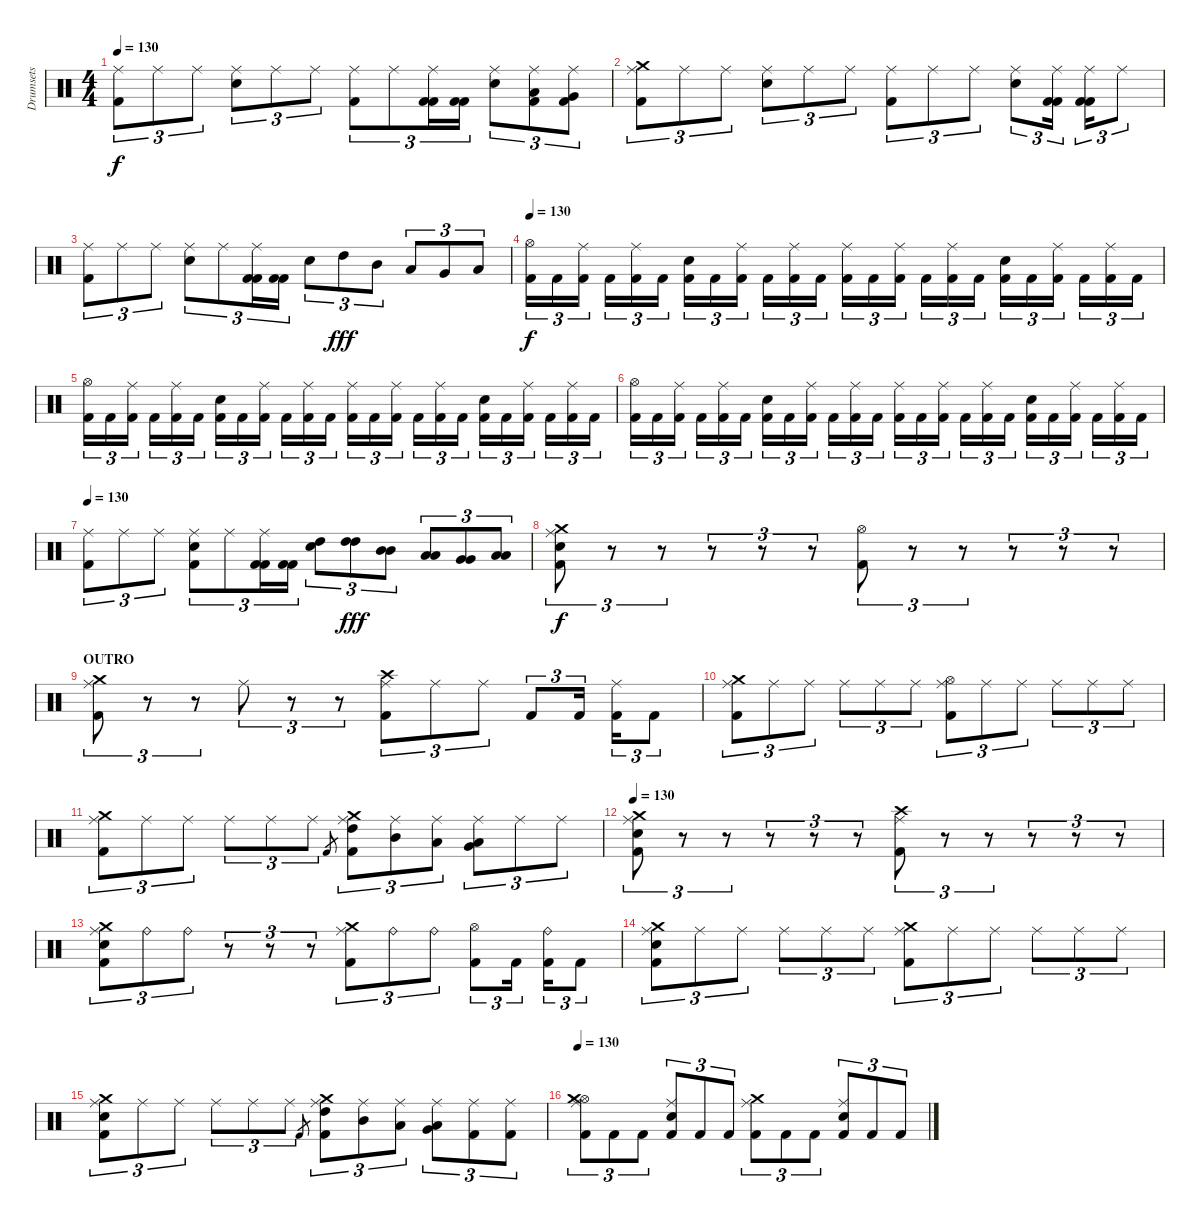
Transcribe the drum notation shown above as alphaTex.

\track ("Drumsets" "Drumsets") {instrument percussion}
\staff {score}
\articulation defaults
\ts (4 4)
\tempo 130
\clef neutral
\ks c
("Kick (hit) 2" "Ride (middle)").8{tu (3 2) dy f} "Ride (middle)".8{tu (3 2)} "Ride (middle)".8{tu (3 2)} ("Snare (hit) 2" "Ride (middle)").8{tu (3 2)} "Ride (middle)".8{tu (3 2)} "Ride (middle)".8{tu (3 2)} ("Kick (hit) 2" "Ride (middle)").8{tu (3 2)} "Ride (middle)".8{tu (3 2)} ("Kick (hit) 2" "Ride (middle)" "Kick (hit) 2").16{tu (3 2)} ("Kick (hit) 2" "Kick (hit) 2").16{tu (3 2)} ("Snare (hit) 2" "Ride (middle)").8{tu (3 2)} ("Kick (hit) 2" "Low Tom (hit)" "Ride (middle)").8{tu (3 2)} ("Kick (hit) 2" "Very Low Tom (hit)" "Ride (middle)").8{tu (3 2)} |
("Kick (hit) 2" "Ride (middle)" "Crash medium (hit)").8{tu (3 2)} "Ride (middle)".8{tu (3 2)} "Ride (middle)".8{tu (3 2)} ("Snare (hit) 2" "Ride (middle)").8{tu (3 2)} "Ride (middle)".8{tu (3 2)} "Ride (middle)".8{tu (3 2)} ("Kick (hit) 2" "Ride (middle)").8{tu (3 2)} "Ride (middle)".8{tu (3 2)} "Ride (middle)".8{tu (3 2)} ("Snare (hit) 2" "Ride (middle)").8{tu (3 2)} ("Kick (hit) 2" "Ride (middle)" "Kick (hit) 2").16{tu (3 2)} ("Kick (hit) 2" "Ride (middle)" "Kick (hit) 2").16{tu (3 2)} "Ride (middle)".8{tu (3 2)} |
("Kick (hit) 2" "Ride (middle)").8{tu (3 2)} "Ride (middle)".8{tu (3 2)} "Ride (middle)".8{tu (3 2)} ("Snare (hit) 2" "Ride (middle)").8{tu (3 2)} "Ride (middle)".8{tu (3 2)} ("Kick (hit) 2" "Ride (middle)" "Kick (hit) 2").16{tu (3 2)} ("Kick (hit) 2" "Kick (hit) 2").16{tu (3 2)} "Electric Snare (hit)".8{tu (3 2)} "High Tom (hit)".8{tu (3 2) dy fff} "Mid Tom (hit)".8{tu (3 2)} "Low Tom (hit)".8{tu (3 2)} "Very Low Tom (hit)".8{tu (3 2)} "Low Floor Tom (hit)".8{tu (3 2)} |
\tempo 130
("Hi-Hat (open)" "Kick (hit) 2").16{tu (3 2) dy f} "Kick (hit) 2".16{tu (3 2)} ("Ride (middle)" "Kick (hit) 2").16{tu (3 2)} "Kick (hit) 2".16{tu (3 2)} ("Ride (middle)" "Kick (hit) 2").16{tu (3 2)} "Kick (hit) 2".16{tu (3 2)} ("Snare (hit) 2" "Kick (hit) 2").16{tu (3 2)} "Kick (hit) 2".16{tu (3 2)} ("Ride (middle)" "Kick (hit) 2").16{tu (3 2)} "Kick (hit) 2".16{tu (3 2)} ("Ride (middle)" "Kick (hit) 2").16{tu (3 2)} "Kick (hit) 2".16{tu (3 2)} ("Ride (middle)" "Kick (hit) 2").16{tu (3 2)} "Kick (hit) 2".16{tu (3 2)} ("Ride (middle)" "Kick (hit) 2").16{tu (3 2)} "Kick (hit) 2".16{tu (3 2)} ("Ride (middle)" "Kick (hit) 2").16{tu (3 2)} "Kick (hit) 2".16{tu (3 2)} ("Snare (hit) 2" "Kick (hit) 2").16{tu (3 2)} "Kick (hit) 2".16{tu (3 2)} ("Ride (middle)" "Kick (hit) 2").16{tu (3 2)} "Kick (hit) 2".16{tu (3 2)} ("Ride (middle)" "Kick (hit) 2").16{tu (3 2)} "Kick (hit) 2".16{tu (3 2)} |
("Hi-Hat (open)" "Kick (hit) 2").16{tu (3 2)} "Kick (hit) 2".16{tu (3 2)} ("Ride (middle)" "Kick (hit) 2").16{tu (3 2)} "Kick (hit) 2".16{tu (3 2)} ("Ride (middle)" "Kick (hit) 2").16{tu (3 2)} "Kick (hit) 2".16{tu (3 2)} ("Snare (hit) 2" "Kick (hit) 2").16{tu (3 2)} "Kick (hit) 2".16{tu (3 2)} ("Ride (middle)" "Kick (hit) 2").16{tu (3 2)} "Kick (hit) 2".16{tu (3 2)} ("Ride (middle)" "Kick (hit) 2").16{tu (3 2)} "Kick (hit) 2".16{tu (3 2)} ("Ride (middle)" "Kick (hit) 2").16{tu (3 2)} "Kick (hit) 2".16{tu (3 2)} ("Ride (middle)" "Kick (hit) 2").16{tu (3 2)} "Kick (hit) 2".16{tu (3 2)} ("Ride (middle)" "Kick (hit) 2").16{tu (3 2)} "Kick (hit) 2".16{tu (3 2)} ("Snare (hit) 2" "Kick (hit) 2").16{tu (3 2)} "Kick (hit) 2".16{tu (3 2)} ("Ride (middle)" "Kick (hit) 2").16{tu (3 2)} "Kick (hit) 2".16{tu (3 2)} ("Ride (middle)" "Kick (hit) 2").16{tu (3 2)} "Kick (hit) 2".16{tu (3 2)} |
("Hi-Hat (open)" "Kick (hit) 2").16{tu (3 2)} "Kick (hit) 2".16{tu (3 2)} ("Ride (middle)" "Kick (hit) 2").16{tu (3 2)} "Kick (hit) 2".16{tu (3 2)} ("Ride (middle)" "Kick (hit) 2").16{tu (3 2)} "Kick (hit) 2".16{tu (3 2)} ("Snare (hit) 2" "Kick (hit) 2").16{tu (3 2)} "Kick (hit) 2".16{tu (3 2)} ("Ride (middle)" "Kick (hit) 2").16{tu (3 2)} "Kick (hit) 2".16{tu (3 2)} ("Ride (middle)" "Kick (hit) 2").16{tu (3 2)} "Kick (hit) 2".16{tu (3 2)} ("Ride (middle)" "Kick (hit) 2").16{tu (3 2)} "Kick (hit) 2".16{tu (3 2)} ("Ride (middle)" "Kick (hit) 2").16{tu (3 2)} "Kick (hit) 2".16{tu (3 2)} ("Ride (middle)" "Kick (hit) 2").16{tu (3 2)} "Kick (hit) 2".16{tu (3 2)} ("Snare (hit) 2" "Kick (hit) 2").16{tu (3 2)} "Kick (hit) 2".16{tu (3 2)} ("Ride (middle)" "Kick (hit) 2").16{tu (3 2)} "Kick (hit) 2".16{tu (3 2)} ("Ride (middle)" "Kick (hit) 2").16{tu (3 2)} "Kick (hit) 2".16{tu (3 2)} |
\tempo 130
("Kick (hit) 2" "Ride (middle)").8{tu (3 2)} "Ride (middle)".8{tu (3 2)} "Ride (middle)".8{tu (3 2)} ("Kick (hit) 2" "Snare (hit) 2" "Ride (middle)").8{tu (3 2)} "Ride (middle)".8{tu (3 2)} ("Kick (hit) 2" "Ride (middle)" "Kick (hit) 2").16{tu (3 2)} ("Kick (hit) 2" "Kick (hit) 2").16{tu (3 2)} ("Electric Snare (hit)" "High Tom (hit)").8{tu (3 2)} ("High Tom (hit)" "High Tom (hit)").8{tu (3 2) dy fff} ("Mid Tom (hit)" "Mid Tom (hit)").8{tu (3 2)} ("Low Tom (hit)" "Low Tom (hit)").8{tu (3 2)} ("Very Low Tom (hit)" "Very Low Tom (hit)").8{tu (3 2)} ("Low Floor Tom (hit)" "Low Floor Tom (hit)").8{tu (3 2)} |
("Kick (hit) 2" "Snare (hit) 2" "Ride (middle)" "Crash medium (hit)").8{tu (3 2) dy f} r.8{tu (3 2)} r.8{tu (3 2)} r.8{tu (3 2)} r.8{tu (3 2)} r.8{tu (3 2)} ("Kick (hit) 2" "Hi-Hat (open)").8{tu (3 2)} r.8{tu (3 2)} r.8{tu (3 2)} r.8{tu (3 2)} r.8{tu (3 2)} r.8{tu (3 2)} |
\section ("" "OUTRO")
("Kick (hit) 2" "Ride (middle)" "Crash medium (hit)").8{tu (3 2)} r.8{tu (3 2)} r.8{tu (3 2)} "Ride (middle)".8{tu (3 2)} r.8{tu (3 2)} r.8{tu (3 2)} ("Kick (hit) 2" "Ride (middle)" "Crash high (hit)").8{tu (3 2)} "Ride (middle)".8{tu (3 2)} "Ride (middle)".8{tu (3 2)} "Kick (hit) 2".8{tu (3 2)} "Kick (hit) 2".16{tu (3 2)} ("Ride (middle)" "Kick (hit) 2").16{tu (3 2)} "Kick (hit) 2".8{tu (3 2)} |
("Kick (hit) 2" "Ride (middle)" "Crash medium (hit)").8{tu (3 2)} "Ride (middle)".8{tu (3 2)} "Ride (middle)".8{tu (3 2)} "Ride (middle)".8{tu (3 2)} "Ride (middle)".8{tu (3 2)} "Ride (middle)".8{tu (3 2)} ("Kick (hit) 2" "Ride (middle)" "Hi-Hat (open)").8{tu (3 2)} "Ride (middle)".8{tu (3 2)} "Ride (middle)".8{tu (3 2)} "Ride (middle)".8{tu (3 2)} "Ride (middle)".8{tu (3 2)} "Ride (middle)".8{tu (3 2)} |
("Kick (hit) 2" "Ride (middle)" "Crash medium (hit)").8{tu (3 2)} "Ride (middle)".8{tu (3 2)} "Ride (middle)".8{tu (3 2)} "Ride (middle)".8{tu (3 2)} "Ride (middle)".8{tu (3 2)} "Ride (middle)".8{tu (3 2)} "Kick (hit) 2".8{gr} ("Kick (hit) 2" "High Tom (hit)" "Ride (middle)" "Crash medium (hit)").8{tu (3 2)} ("Ride (middle)" "Mid Tom (hit)").8{tu (3 2)} ("Ride (middle)" "Low Tom (hit)").8{tu (3 2)} ("Ride (middle)" "Low Floor Tom (hit)" "Very Low Tom (hit)").8{tu (3 2)} "Ride (middle)".8{tu (3 2)} "Ride (middle)".8{tu (3 2)} |
\tempo 130
("Kick (hit) 2" "Snare (hit) 2" "Ride (middle)" "Crash medium (hit)").8{tu (3 2)} r.8{tu (3 2)} r.8{tu (3 2)} r.8{tu (3 2)} r.8{tu (3 2)} r.8{tu (3 2)} ("Kick (hit) 2" "Ride (middle)" "Crash high (hit)").8{tu (3 2)} r.8{tu (3 2)} r.8{tu (3 2)} r.8{tu (3 2)} r.8{tu (3 2)} r.8{tu (3 2)} |
("Kick (hit) 2" "Snare (hit) 2" "Ride (middle)" "Crash medium (hit)").8{tu (3 2)} "Ride (bell)".8{tu (3 2)} "Ride (bell)".8{tu (3 2)} r.8{tu (3 2)} r.8{tu (3 2)} r.8{tu (3 2)} ("Kick (hit) 2" "Ride (middle)" "Crash medium (hit)").8{tu (3 2)} "Ride (bell)".8{tu (3 2)} "Ride (bell)".8{tu (3 2)} ("Hi-Hat (open)" "Kick (hit) 2").8{tu (3 2)} "Kick (hit) 2".16{tu (3 2)} ("Ride (bell)" "Kick (hit) 2").16{tu (3 2)} "Kick (hit) 2".8{tu (3 2)} |
("Kick (hit) 2" "Snare (hit) 2" "Ride (middle)" "Crash medium (hit)").8{tu (3 2)} "Ride (middle)".8{tu (3 2)} "Ride (middle)".8{tu (3 2)} "Ride (middle)".8{tu (3 2)} "Ride (middle)".8{tu (3 2)} "Ride (middle)".8{tu (3 2)} ("Kick (hit) 2" "Ride (middle)" "Crash medium (hit)").8{tu (3 2)} "Ride (middle)".8{tu (3 2)} "Ride (middle)".8{tu (3 2)} "Ride (middle)".8{tu (3 2)} "Ride (middle)".8{tu (3 2)} "Ride (middle)".8{tu (3 2)} |
("Kick (hit) 2" "Snare (hit) 2" "Ride (middle)" "Crash medium (hit)").8{tu (3 2)} "Ride (middle)".8{tu (3 2)} "Ride (middle)".8{tu (3 2)} "Ride (middle)".8{tu (3 2)} "Ride (middle)".8{tu (3 2)} "Ride (middle)".8{tu (3 2)} "Kick (hit) 2".8{gr} ("Kick (hit) 2" "High Tom (hit)" "Ride (middle)" "Crash medium (hit)").8{tu (3 2)} ("Ride (middle)" "Mid Tom (hit)").8{tu (3 2)} ("Ride (middle)" "Low Tom (hit)").8{tu (3 2)} ("Ride (middle)" "Low Floor Tom (hit)" "Very Low Tom (hit)").8{tu (3 2)} ("Ride (middle)" "Kick (hit) 2").8{tu (3 2)} ("Ride (middle)" "Kick (hit) 2").8{tu (3 2)} |
\tempo 130
("Kick (hit) 2" "Hi-Hat (open)" "Ride (middle)" "Crash medium (hit)").8{tu (3 2)} "Kick (hit) 2".8{tu (3 2)} "Kick (hit) 2".8{tu (3 2)} ("Kick (hit) 2" "Snare (hit) 2" "Ride (middle)").8{tu (3 2)} "Kick (hit) 2".8{tu (3 2)} "Kick (hit) 2".8{tu (3 2)} ("Kick (hit) 2" "Ride (middle)" "Crash medium (hit)").8{tu (3 2)} "Kick (hit) 2".8{tu (3 2)} "Kick (hit) 2".8{tu (3 2)} ("Kick (hit) 2" "Snare (hit) 2" "Ride (middle)").8{tu (3 2)} "Kick (hit) 2".8{tu (3 2)} "Kick (hit) 2".8{tu (3 2)}
